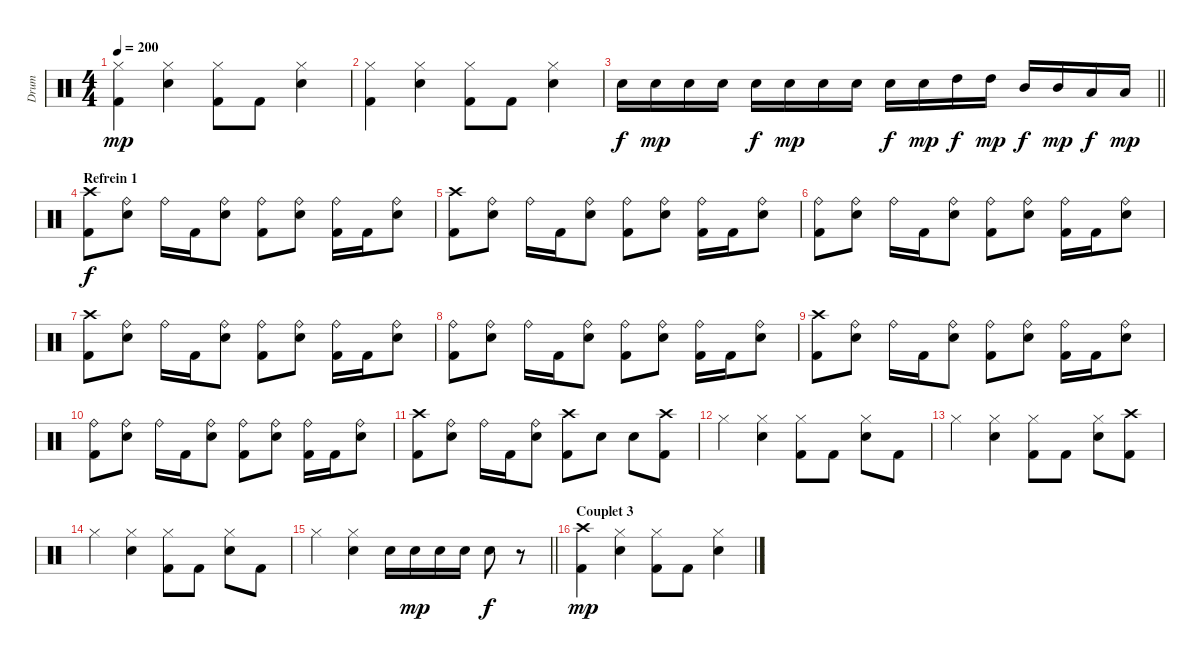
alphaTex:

\track ("Drum" "Drum") {instrument percussion}
\staff {score}
\articulation defaults
\ts (4 4)
\tempo 200
\clef neutral
\ks c
("Hi-Hat (closed)" "Kick (hit) 2").4{dy mp} ("Hi-Hat (closed)" "Snare (hit) 2").4 ("Hi-Hat (closed)" "Kick (hit) 2").8 "Kick (hit) 2".8 ("Hi-Hat (closed)" "Snare (hit) 2").4 |
("Hi-Hat (closed)" "Kick (hit) 2").4 ("Hi-Hat (closed)" "Snare (hit) 2").4 ("Hi-Hat (closed)" "Kick (hit) 2").8 "Kick (hit) 2".8 ("Hi-Hat (closed)" "Snare (hit) 2").4 |
\barLineRight lightlight "Snare (hit) 2".16{dy f} "Snare (hit) 2".16{dy mp} "Snare (hit) 2".16 "Snare (hit) 2".16 "Snare (hit) 2".16{dy f} "Snare (hit) 2".16{dy mp} "Snare (hit) 2".16 "Snare (hit) 2".16 "Snare (hit) 2".16{dy f} "Snare (hit) 2".16{dy mp} "High Tom (hit)".16{dy f} "High Tom (hit)".16{dy mp} "Mid Tom (hit)".16{dy f} "Mid Tom (hit)".16{dy mp} "Low Tom (hit)".16{dy f} "Low Tom (hit)".16{dy mp}
|
\section ("" "Refrein 1")
("Crash high (hit)" "Kick (hit) 2").8{dy f} ("Ride (bell)" "Snare (hit) 2").8 "Ride (bell)".16 "Kick (hit) 2".16 ("Ride (bell)" "Snare (hit) 2").8 ("Ride (bell)" "Kick (hit) 2").8 ("Ride (bell)" "Snare (hit) 2").8 ("Ride (bell)" "Kick (hit) 2").16 "Kick (hit) 2".16 ("Ride (bell)" "Snare (hit) 2").8 |
("Crash high (hit)" "Kick (hit) 2").8 ("Ride (bell)" "Snare (hit) 2").8 "Ride (bell)".16 "Kick (hit) 2".16 ("Ride (bell)" "Snare (hit) 2").8 ("Ride (bell)" "Kick (hit) 2").8 ("Ride (bell)" "Snare (hit) 2").8 ("Ride (bell)" "Kick (hit) 2").16 "Kick (hit) 2".16 ("Ride (bell)" "Snare (hit) 2").8 |
("Ride (bell)" "Kick (hit) 2").8 ("Ride (bell)" "Snare (hit) 2").8 "Ride (bell)".16 "Kick (hit) 2".16 ("Ride (bell)" "Snare (hit) 2").8 ("Ride (bell)" "Kick (hit) 2").8 ("Ride (bell)" "Snare (hit) 2").8 ("Ride (bell)" "Kick (hit) 2").16 "Kick (hit) 2".16 ("Ride (bell)" "Snare (hit) 2").8 |
("Crash high (hit)" "Kick (hit) 2").8 ("Ride (bell)" "Snare (hit) 2").8 "Ride (bell)".16 "Kick (hit) 2".16 ("Ride (bell)" "Snare (hit) 2").8 ("Ride (bell)" "Kick (hit) 2").8 ("Ride (bell)" "Snare (hit) 2").8 ("Ride (bell)" "Kick (hit) 2").16 "Kick (hit) 2".16 ("Ride (bell)" "Snare (hit) 2").8 |
("Ride (bell)" "Kick (hit) 2").8 ("Ride (bell)" "Snare (hit) 2").8 "Ride (bell)".16 "Kick (hit) 2".16 ("Ride (bell)" "Snare (hit) 2").8 ("Ride (bell)" "Kick (hit) 2").8 ("Ride (bell)" "Snare (hit) 2").8 ("Ride (bell)" "Kick (hit) 2").16 "Kick (hit) 2".16 ("Ride (bell)" "Snare (hit) 2").8 |
("Crash high (hit)" "Kick (hit) 2").8 ("Ride (bell)" "Snare (hit) 2").8 "Ride (bell)".16 "Kick (hit) 2".16 ("Ride (bell)" "Snare (hit) 2").8 ("Ride (bell)" "Kick (hit) 2").8 ("Ride (bell)" "Snare (hit) 2").8 ("Ride (bell)" "Kick (hit) 2").16 "Kick (hit) 2".16 ("Ride (bell)" "Snare (hit) 2").8 |
("Ride (bell)" "Kick (hit) 2").8 ("Ride (bell)" "Snare (hit) 2").8 "Ride (bell)".16 "Kick (hit) 2".16 ("Ride (bell)" "Snare (hit) 2").8 ("Ride (bell)" "Kick (hit) 2").8 ("Ride (bell)" "Snare (hit) 2").8 ("Ride (bell)" "Kick (hit) 2").16 "Kick (hit) 2".16 ("Ride (bell)" "Snare (hit) 2").8 |
("Crash high (hit)" "Kick (hit) 2").8 ("Ride (bell)" "Snare (hit) 2").8 "Ride (bell)".16 "Kick (hit) 2".16 ("Ride (bell)" "Snare (hit) 2").8 ("Crash high (hit)" "Kick (hit) 2").8 "Snare (hit) 2".8 "Snare (hit) 2".8 ("Crash high (hit)" "Kick (hit) 2").8 |
"Hi-Hat (closed)".4 ("Hi-Hat (closed)" "Snare (hit) 2").4 ("Hi-Hat (closed)" "Kick (hit) 2").8 "Kick (hit) 2".8 ("Hi-Hat (closed)" "Snare (hit) 2").8 "Kick (hit) 2".8 |
"Hi-Hat (closed)".4 ("Hi-Hat (closed)" "Snare (hit) 2").4 ("Hi-Hat (closed)" "Kick (hit) 2").8 "Kick (hit) 2".8 ("Hi-Hat (closed)" "Snare (hit) 2").8 ("Crash high (hit)" "Kick (hit) 2").8 |
"Hi-Hat (closed)".4 ("Hi-Hat (closed)" "Snare (hit) 2").4 ("Hi-Hat (closed)" "Kick (hit) 2").8 "Kick (hit) 2".8 ("Hi-Hat (closed)" "Snare (hit) 2").8 "Kick (hit) 2".8 |
\barLineRight lightlight "Hi-Hat (closed)".4
("Hi-Hat (closed)" "Snare (hit) 2").4 "Snare (hit) 2".16 "Snare (hit) 2".16{dy mp} "Snare (hit) 2".16 "Snare (hit) 2".16 "Snare (hit) 2".8{dy f} r.8 |
\section ("" "Couplet 3")
("Crash high (hit)" "Kick (hit) 2").4{dy mp} ("Hi-Hat (closed)" "Snare (hit) 2").4 ("Hi-Hat (closed)" "Kick (hit) 2").8 "Kick (hit) 2".8 ("Hi-Hat (closed)" "Snare (hit) 2").4
